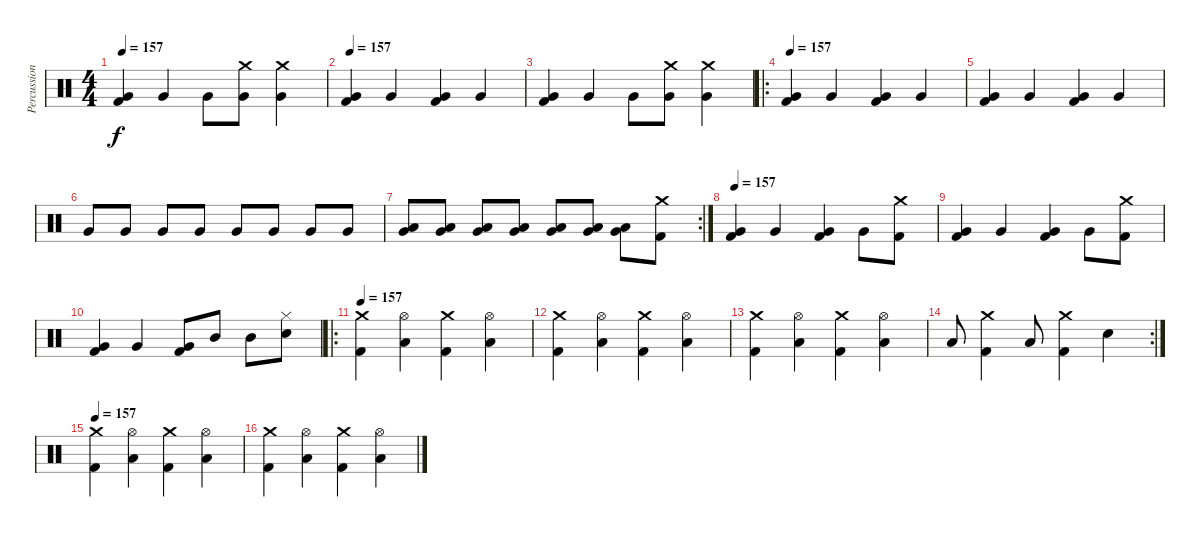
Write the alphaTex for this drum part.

\track ("Percussion" "Percussion") {instrument percussion}
\staff {score}
\articulation defaults
\ts (4 4)
\tempo 157
\clef neutral
\ks c
("Kick (hit) 2" "Very Low Tom (hit)").4{dy f} "Very Low Tom (hit)".4 "Very Low Tom (hit)".8 ("Very Low Tom (hit)" "Crash medium (hit)").8 ("Very Low Tom (hit)" "Crash medium (hit)").4 |
\tempo 157
("Kick (hit) 2" "Very Low Tom (hit)").4 "Very Low Tom (hit)".4 ("Kick (hit) 2" "Very Low Tom (hit)").4 "Very Low Tom (hit)".4 |
("Kick (hit) 2" "Very Low Tom (hit)").4 "Very Low Tom (hit)".4 "Very Low Tom (hit)".8 ("Very Low Tom (hit)" "Crash medium (hit)").8 ("Very Low Tom (hit)" "Crash medium (hit)").4 |
\ro
\tempo 157
("Kick (hit) 2" "Very Low Tom (hit)").4 "Very Low Tom (hit)".4 ("Kick (hit) 2" "Very Low Tom (hit)").4 "Very Low Tom (hit)".4 |
("Kick (hit) 2" "Very Low Tom (hit)").4 "Very Low Tom (hit)".4 ("Kick (hit) 2" "Very Low Tom (hit)").4 "Very Low Tom (hit)".4 |
"Very Low Tom (hit)".8 "Very Low Tom (hit)".8 "Very Low Tom (hit)".8 "Very Low Tom (hit)".8 "Very Low Tom (hit)".8 "Very Low Tom (hit)".8 "Very Low Tom (hit)".8 "Very Low Tom (hit)".8 |
\rc 2
("Very Low Tom (hit)" "Low Tom (hit)").8 ("Very Low Tom (hit)" "Low Tom (hit)").8 ("Very Low Tom (hit)" "Low Tom (hit)").8 ("Very Low Tom (hit)" "Low Tom (hit)").8 ("Very Low Tom (hit)" "Low Tom (hit)").8 ("Very Low Tom (hit)" "Low Tom (hit)").8 ("Very Low Tom (hit)" "Low Tom (hit)").8 ("Kick (hit) 2" "Crash medium (hit)").8 |
\tempo 157
("Kick (hit) 2" "Very Low Tom (hit)").4 "Very Low Tom (hit)".4 ("Kick (hit) 2" "Very Low Tom (hit)").4 "Very Low Tom (hit)".8 ("Kick (hit) 2" "Crash medium (hit)").8 |
("Kick (hit) 2" "Very Low Tom (hit)").4 "Very Low Tom (hit)".4 ("Kick (hit) 2" "Very Low Tom (hit)").4 "Very Low Tom (hit)".8 ("Kick (hit) 2" "Crash medium (hit)").8 |
("Kick (hit) 2" "Very Low Tom (hit)").4 "Very Low Tom (hit)".4 ("Kick (hit) 2" "Very Low Tom (hit)").8 "Mid Tom (hit)".8 "Mid Tom (hit)".8 ("Snare (hit) 2" "Hi-Hat (closed)").8 |
\ro
\tempo 157
("Kick (hit) 2" "Crash medium (hit)").4 ("Low Tom (hit)" "Hi-Hat (open)").4 ("Kick (hit) 2" "Crash medium (hit)").4 ("Low Tom (hit)" "Hi-Hat (open)").4 |
("Kick (hit) 2" "Crash medium (hit)").4 ("Low Tom (hit)" "Hi-Hat (open)").4 ("Kick (hit) 2" "Crash medium (hit)").4 ("Low Tom (hit)" "Hi-Hat (open)").4 |
("Kick (hit) 2" "Crash medium (hit)").4 ("Low Tom (hit)" "Hi-Hat (open)").4 ("Kick (hit) 2" "Crash medium (hit)").4 ("Low Tom (hit)" "Hi-Hat (open)").4 |
\rc 2 "Low Tom (hit)".8
("Kick (hit) 2" "Crash medium (hit)").4 "Low Tom (hit)".8 ("Kick (hit) 2" "Crash medium (hit)").4 "Snare (hit) 2".4 |
\tempo 157
("Kick (hit) 2" "Crash medium (hit)").4 ("Low Tom (hit)" "Hi-Hat (open)").4 ("Kick (hit) 2" "Crash medium (hit)").4 ("Low Tom (hit)" "Hi-Hat (open)").4 |
("Kick (hit) 2" "Crash medium (hit)").4 ("Low Tom (hit)" "Hi-Hat (open)").4 ("Kick (hit) 2" "Crash medium (hit)").4 ("Low Tom (hit)" "Hi-Hat (open)").4
